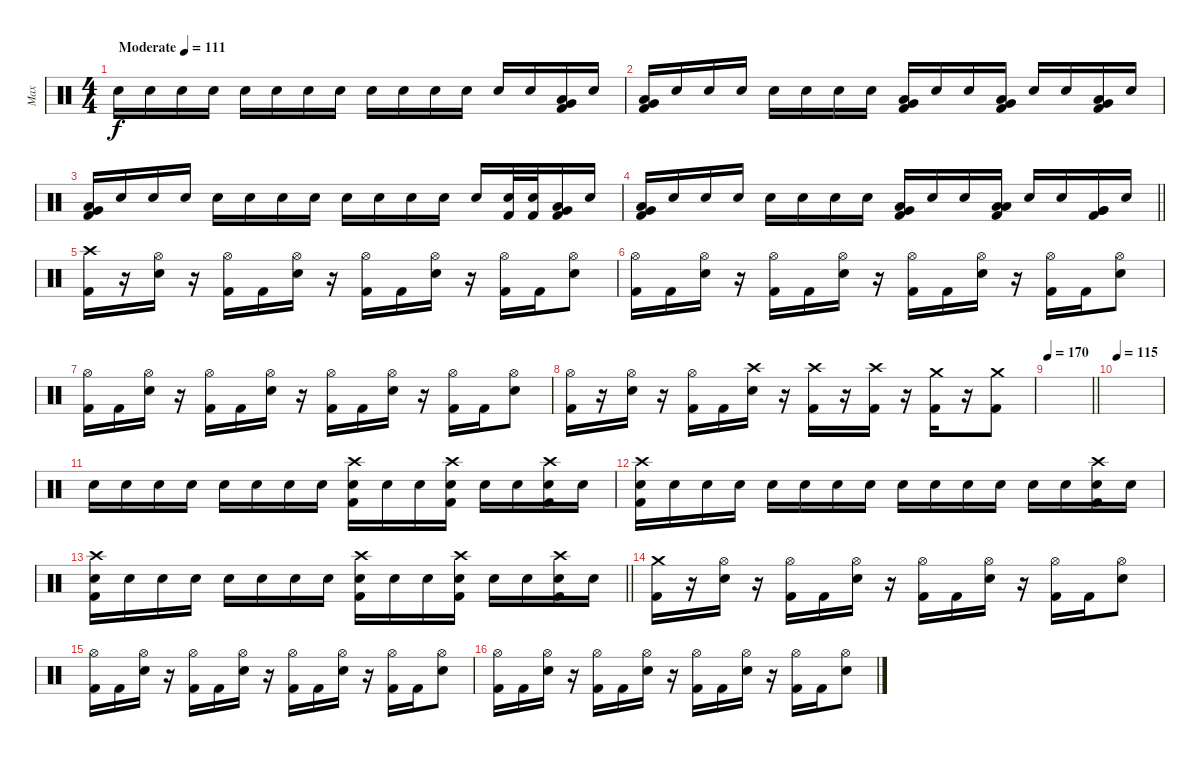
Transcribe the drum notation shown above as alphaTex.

\track ("Max" "Max") {instrument percussion}
\staff {score}
\articulation defaults
\ts (4 4)
\tempo (111 "Moderate")
\clef neutral
\ks c "Snare (hit)".16{dy f} "Snare (hit)".16 "Snare (hit)".16 "Snare (hit)".16 "Snare (hit)".16 "Snare (hit)".16 "Snare (hit)".16 "Snare (hit)".16 "Snare (hit)".16 "Snare (hit)".16 "Snare (hit)".16 "Snare (hit)".16 "Snare (hit)".16 "Snare (hit)".16
("Low Floor Tom (hit)" "Very Low Tom (hit)" "Kick (hit) 2").16 "Snare (hit)".16 |
("Low Floor Tom (hit)" "Very Low Tom (hit)" "Kick (hit) 2").16 "Snare (hit)".16 "Snare (hit)".16 "Snare (hit)".16 "Snare (hit)".16 "Snare (hit)".16 "Snare (hit)".16 "Snare (hit)".16 ("Low Floor Tom (hit)" "Very Low Tom (hit)" "Kick (hit) 2").16 "Snare (hit)".16 "Snare (hit)".16 ("Low Floor Tom (hit)" "Very Low Tom (hit)" "Kick (hit) 2").16 "Snare (hit)".16 "Snare (hit)".16 ("Low Floor Tom (hit)" "Very Low Tom (hit)" "Kick (hit) 2").16 "Snare (hit)".16 |
("Low Floor Tom (hit)" "Very Low Tom (hit)" "Kick (hit) 2").16 "Snare (hit)".16 "Snare (hit)".16 "Snare (hit)".16 "Snare (hit)".16 "Snare (hit)".16 "Snare (hit)".16 "Snare (hit)".16 "Snare (hit)".16 "Snare (hit)".16 "Snare (hit)".16 "Snare (hit)".16 "Snare (hit)".16 ("Snare (hit)" "Kick (hit) 2").32 ("Snare (hit)" "Kick (hit) 2").32 ("Low Floor Tom (hit)" "Very Low Tom (hit)" "Kick (hit) 2").16 "Snare (hit)".16 |
\barLineRight lightlight
("Low Floor Tom (hit)" "Very Low Tom (hit)" "Kick (hit) 2").16 "Snare (hit)".16 "Snare (hit)".16 "Snare (hit)".16 "Snare (hit)".16 "Snare (hit)".16 "Snare (hit)".16 "Snare (hit)".16 ("Low Floor Tom (hit)" "Very Low Tom (hit)" "Kick (hit) 2").16 "Snare (hit)".16 "Snare (hit)".16 ("Low Floor Tom (hit)" "Low Tom (hit)" "Kick (hit) 2").16 "Snare (hit)".16 "Snare (hit)".16 ("Very Low Tom (hit)" "Very Low Tom (hit)" "Kick (hit) 2").16 "Snare (hit)".16 |
("Crash high (hit)" "Kick (hit) 2").16 r.16 ("Hi-Hat (open)" "Electric Snare (hit)").16 r.16 ("Hi-Hat (open)" "Kick (hit) 2").16 "Kick (hit) 2".16 ("Hi-Hat (open)" "Electric Snare (hit)").16 r.16 ("Hi-Hat (open)" "Kick (hit) 2").16 "Kick (hit) 2".16 ("Hi-Hat (open)" "Electric Snare (hit)").16 r.16 ("Hi-Hat (open)" "Kick (hit) 2").16 "Kick (hit) 2".16 ("Hi-Hat (open)" "Electric Snare (hit)").8 |
("Hi-Hat (open)" "Kick (hit) 2").16 "Kick (hit) 2".16 ("Hi-Hat (open)" "Electric Snare (hit)").16 r.16 ("Hi-Hat (open)" "Kick (hit) 2").16 "Kick (hit) 2".16 ("Hi-Hat (open)" "Electric Snare (hit)").16 r.16 ("Hi-Hat (open)" "Kick (hit) 2").16 "Kick (hit) 2".16 ("Hi-Hat (open)" "Electric Snare (hit)").16 r.16 ("Hi-Hat (open)" "Kick (hit) 2").16 "Kick (hit) 2".16 ("Hi-Hat (open)" "Electric Snare (hit)").8 |
("Hi-Hat (open)" "Kick (hit) 2").16 "Kick (hit) 2".16 ("Hi-Hat (open)" "Electric Snare (hit)").16 r.16 ("Hi-Hat (open)" "Kick (hit) 2").16 "Kick (hit) 2".16 ("Hi-Hat (open)" "Electric Snare (hit)").16 r.16 ("Hi-Hat (open)" "Kick (hit) 2").16 "Kick (hit) 2".16 ("Hi-Hat (open)" "Electric Snare (hit)").16 r.16 ("Hi-Hat (open)" "Kick (hit) 2").16 "Kick (hit) 2".16 ("Hi-Hat (open)" "Electric Snare (hit)").8 |
("Hi-Hat (open)" "Kick (hit) 2").16 r.16 ("Hi-Hat (open)" "Electric Snare (hit)").16 r.16 ("Hi-Hat (open)" "Kick (hit) 2").16 "Kick (hit) 2".16 ("Crash high (hit)" "Electric Snare (hit)").16 r.16 ("Crash high (hit)" "Kick (hit) 2").16 r.16 ("Crash high (hit)" "Kick (hit) 2").16 r.16 ("Crash medium (hit)" "Kick (hit) 2").16 r.16 ("Crash medium (hit)" "Kick (hit) 2").8 |
\tempo 170
\barLineRight lightlight
|
\tempo 115
|
"Snare (hit)".16 "Snare (hit)".16 "Snare (hit)".16 "Snare (hit)".16 "Snare (hit)".16 "Snare (hit)".16 "Snare (hit)".16 "Snare (hit)".16 ("Crash high (hit)" "Snare (hit)" "Kick (hit) 2").16 "Snare (hit)".16 "Snare (hit)".16 ("Crash high (hit)" "Snare (hit)" "Kick (hit) 2").16 "Snare (hit)".16 "Snare (hit)".16 ("Crash high (hit)" "Snare (hit)" "Kick (hit) 2").16 "Snare (hit)".16 |
("Crash high (hit)" "Snare (hit)" "Kick (hit) 2").16 "Snare (hit)".16 "Snare (hit)".16 "Snare (hit)".16 "Snare (hit)".16 "Snare (hit)".16 "Snare (hit)".16 "Snare (hit)".16 "Snare (hit)".16 "Snare (hit)".16 "Snare (hit)".16 "Snare (hit)".16 "Snare (hit)".16 "Snare (hit)".16 ("Crash high (hit)" "Snare (hit)" "Kick (hit) 2").16 "Snare (hit)".16 |
\barLineRight lightlight
("Crash high (hit)" "Snare (hit)" "Kick (hit) 2").16 "Snare (hit)".16 "Snare (hit)".16 "Snare (hit)".16 "Snare (hit)".16 "Snare (hit)".16 "Snare (hit)".16 "Snare (hit)".16 ("Crash high (hit)" "Snare (hit)" "Kick (hit) 2").16 "Snare (hit)".16 "Snare (hit)".16 ("Crash high (hit)" "Snare (hit)" "Kick (hit) 2").16 "Snare (hit)".16 "Snare (hit)".16 ("Crash high (hit)" "Snare (hit)" "Kick (hit) 2").16 "Snare (hit)".16 |
("Crash medium (hit)" "Kick (hit) 2").16 r.16 ("Hi-Hat (open)" "Electric Snare (hit)").16 r.16 ("Hi-Hat (open)" "Kick (hit) 2").16 "Kick (hit) 2".16 ("Hi-Hat (open)" "Electric Snare (hit)").16 r.16 ("Hi-Hat (open)" "Kick (hit) 2").16 "Kick (hit) 2".16 ("Hi-Hat (open)" "Electric Snare (hit)").16 r.16 ("Hi-Hat (open)" "Kick (hit) 2").16 "Kick (hit) 2".16 ("Hi-Hat (open)" "Electric Snare (hit)").8 |
("Hi-Hat (open)" "Kick (hit) 2").16 "Kick (hit) 2".16 ("Hi-Hat (open)" "Electric Snare (hit)").16 r.16 ("Hi-Hat (open)" "Kick (hit) 2").16 "Kick (hit) 2".16 ("Hi-Hat (open)" "Electric Snare (hit)").16 r.16 ("Hi-Hat (open)" "Kick (hit) 2").16 "Kick (hit) 2".16 ("Hi-Hat (open)" "Electric Snare (hit)").16 r.16 ("Hi-Hat (open)" "Kick (hit) 2").16 "Kick (hit) 2".16 ("Hi-Hat (open)" "Electric Snare (hit)").8 |
("Hi-Hat (open)" "Kick (hit) 2").16 "Kick (hit) 2".16 ("Hi-Hat (open)" "Electric Snare (hit)").16 r.16 ("Hi-Hat (open)" "Kick (hit) 2").16 "Kick (hit) 2".16 ("Hi-Hat (open)" "Electric Snare (hit)").16 r.16 ("Hi-Hat (open)" "Kick (hit) 2").16 "Kick (hit) 2".16 ("Hi-Hat (open)" "Electric Snare (hit)").16 r.16 ("Hi-Hat (open)" "Kick (hit) 2").16 "Kick (hit) 2".16 ("Hi-Hat (open)" "Electric Snare (hit)").8
